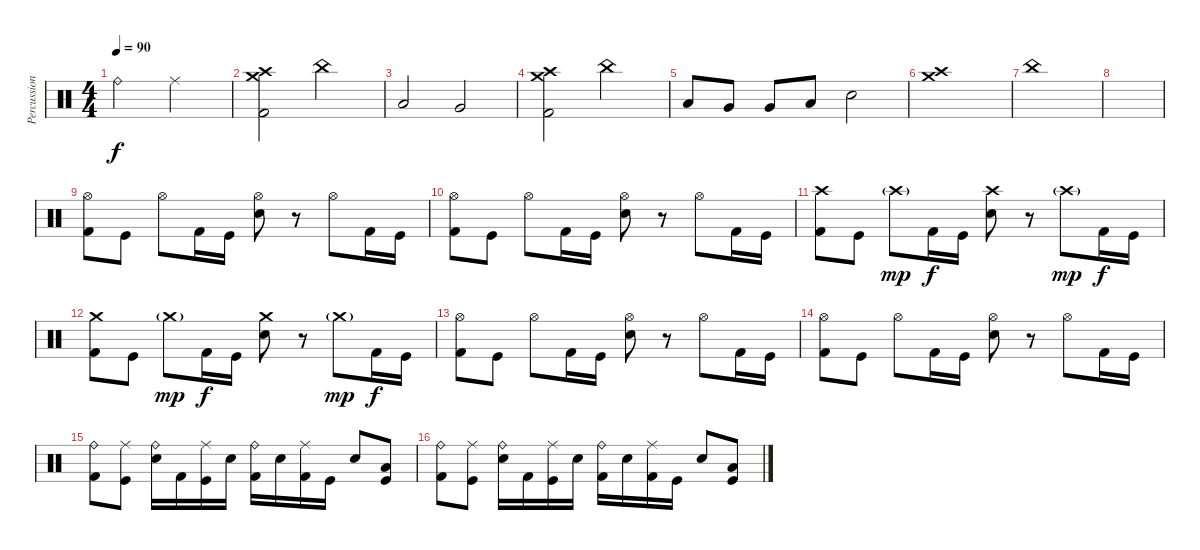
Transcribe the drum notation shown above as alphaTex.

\track ("Percussion" "Percussion") {instrument percussion}
\staff {score}
\articulation defaults
\ts (4 4)
\tempo 90
\clef neutral
\ks c "Ride (bell)".2{dy f} "Ride (middle)".2
|
("Crash medium (hit)" "Crash high (hit)" "Kick (hit) 2").2 "China (hit)".2 |
"Low Tom (hit)".2 "Very Low Tom (hit)".2 |
("Crash medium (hit)" "Crash high (hit)" "Kick (hit) 2").2 "China (hit)".2 |
"Low Tom (hit)".8 "Very Low Tom (hit)".8 "Very Low Tom (hit)".8 "Low Floor Tom (hit)".8 "Electric Snare (hit)".2 |
("Crash medium (hit)" "Crash high (hit)").1 |
"China (hit)".1 |
|
("Hi-Hat (open)" "Kick (hit) 2").8 "Kick (hit)".8 "Hi-Hat (open)".8 "Kick (hit) 2".16 "Kick (hit)".16 ("Hi-Hat (open)" "Electric Snare (hit)").8 r.8 "Hi-Hat (open)".8 "Kick (hit) 2".16 "Kick (hit)".16 |
("Hi-Hat (open)" "Kick (hit) 2").8 "Kick (hit)".8 "Hi-Hat (open)".8 "Kick (hit) 2".16 "Kick (hit)".16 ("Hi-Hat (open)" "Electric Snare (hit)").8 r.8 "Hi-Hat (open)".8 "Kick (hit) 2".16 "Kick (hit)".16 |
("Crash high (hit)" "Kick (hit) 2").8 "Kick (hit)".8 "Crash high (hit)"{g}.8{dy mp} "Kick (hit) 2".16{dy f} "Kick (hit)".16 ("Crash high (hit)" "Electric Snare (hit)").8 r.8 "Crash high (hit)"{g}.8{dy mp} "Kick (hit) 2".16{dy f} "Kick (hit)".16 |
("Crash medium (hit)" "Kick (hit) 2").8 "Kick (hit)".8 "Crash medium (hit)"{g}.8{dy mp} "Kick (hit) 2".16{dy f} "Kick (hit)".16 ("Crash medium (hit)" "Electric Snare (hit)").8 r.8 "Crash medium (hit)"{g}.8{dy mp} "Kick (hit) 2".16{dy f} "Kick (hit)".16 |
("Hi-Hat (open)" "Kick (hit) 2").8 "Kick (hit)".8 "Hi-Hat (open)".8 "Kick (hit) 2".16 "Kick (hit)".16 ("Hi-Hat (open)" "Electric Snare (hit)").8 r.8 "Hi-Hat (open)".8 "Kick (hit) 2".16 "Kick (hit)".16 |
("Hi-Hat (open)" "Kick (hit) 2").8 "Kick (hit)".8 "Hi-Hat (open)".8 "Kick (hit) 2".16 "Kick (hit)".16 ("Hi-Hat (open)" "Electric Snare (hit)").8 r.8 "Hi-Hat (open)".8 "Kick (hit) 2".16 "Kick (hit)".16 |
("Ride (bell)" "Kick (hit) 2").8 ("Ride (middle)" "Kick (hit)").8 ("Ride (bell)" "Electric Snare (hit)").16 "Kick (hit) 2".16 ("Ride (middle)" "Kick (hit)").16 "Electric Snare (hit)".16 ("Ride (bell)" "Kick (hit) 2").16 "Electric Snare (hit)".16 ("Ride (middle)" "Kick (hit) 2").16 "Kick (hit)".16 "Electric Snare (hit)".8 ("Low Tom (hit)" "Kick (hit)").8 |
("Ride (bell)" "Kick (hit) 2").8 ("Ride (middle)" "Kick (hit)").8 ("Ride (bell)" "Electric Snare (hit)").16 "Kick (hit) 2".16 ("Ride (middle)" "Kick (hit)").16 "Electric Snare (hit)".16 ("Ride (bell)" "Kick (hit) 2").16 "Electric Snare (hit)".16 ("Ride (middle)" "Kick (hit) 2").16 "Kick (hit)".16 "Electric Snare (hit)".8 ("Low Tom (hit)" "Kick (hit)").8
